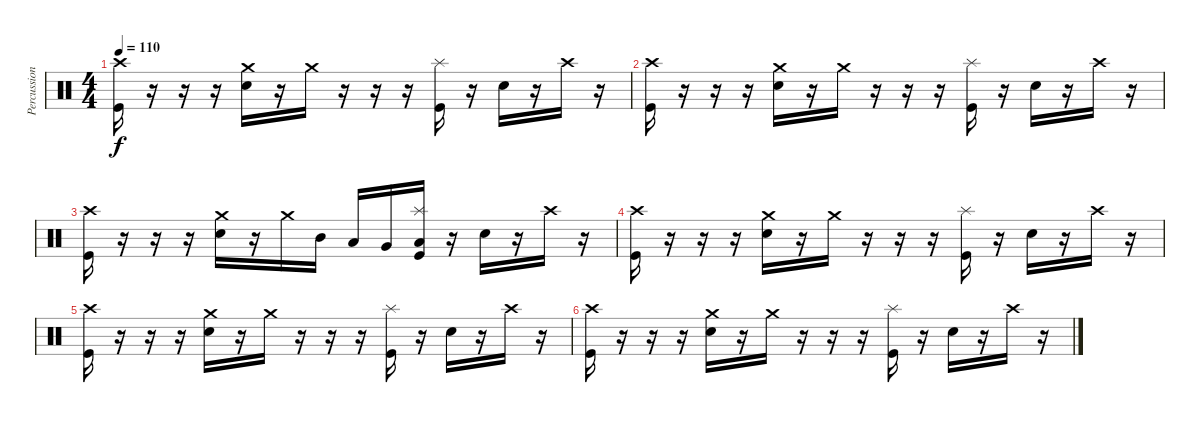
\track ("Percussions" "Percussion") {instrument percussion}
\staff {score}
\articulation defaults
\ts (4 4)
\tempo 110
\clef neutral
\ks c
("Crash high (hit)" "Kick (hit)").16{dy f} r.16 r.16 r.16 ("Crash medium (hit)" "Electric Snare (hit)").16 r.16 "Crash medium (hit)".16 r.16 r.16 r.16 ("Splash (hit)" "Kick (hit)").16 r.16 "Electric Snare (hit)".16 r.16 "Crash high (hit)".16 r.16 |
("Crash high (hit)" "Kick (hit)").16 r.16 r.16 r.16 ("Crash medium (hit)" "Electric Snare (hit)").16 r.16 "Crash medium (hit)".16 r.16 r.16 r.16 ("Splash (hit)" "Kick (hit)").16 r.16 "Electric Snare (hit)".16 r.16 "Crash high (hit)".16 r.16 |
("Crash high (hit)" "Kick (hit)").16 r.16 r.16 r.16 ("Crash medium (hit)" "Electric Snare (hit)").16 r.16 "Crash medium (hit)".16 "Mid Tom (hit)".16 "Low Tom (hit)".16 "Very Low Tom (hit)".16 ("Splash (hit)" "Low Floor Tom (hit)" "Kick (hit)").16 r.16 "Electric Snare (hit)".16 r.16 "Crash high (hit)".16 r.16 |
("Crash high (hit)" "Kick (hit)").16 r.16 r.16 r.16 ("Crash medium (hit)" "Electric Snare (hit)").16 r.16 "Crash medium (hit)".16 r.16 r.16 r.16 ("Splash (hit)" "Kick (hit)").16 r.16 "Electric Snare (hit)".16 r.16 "Crash high (hit)".16 r.16 |
("Crash high (hit)" "Kick (hit)").16 r.16 r.16 r.16 ("Crash medium (hit)" "Electric Snare (hit)").16 r.16 "Crash medium (hit)".16 r.16 r.16 r.16 ("Splash (hit)" "Kick (hit)").16 r.16 "Electric Snare (hit)".16 r.16 "Crash high (hit)".16 r.16 |
("Crash high (hit)" "Kick (hit)").16 r.16 r.16 r.16 ("Crash medium (hit)" "Electric Snare (hit)").16 r.16 "Crash medium (hit)".16 r.16 r.16 r.16 ("Splash (hit)" "Kick (hit)").16 r.16 "Electric Snare (hit)".16 r.16 "Crash high (hit)".16 r.16
